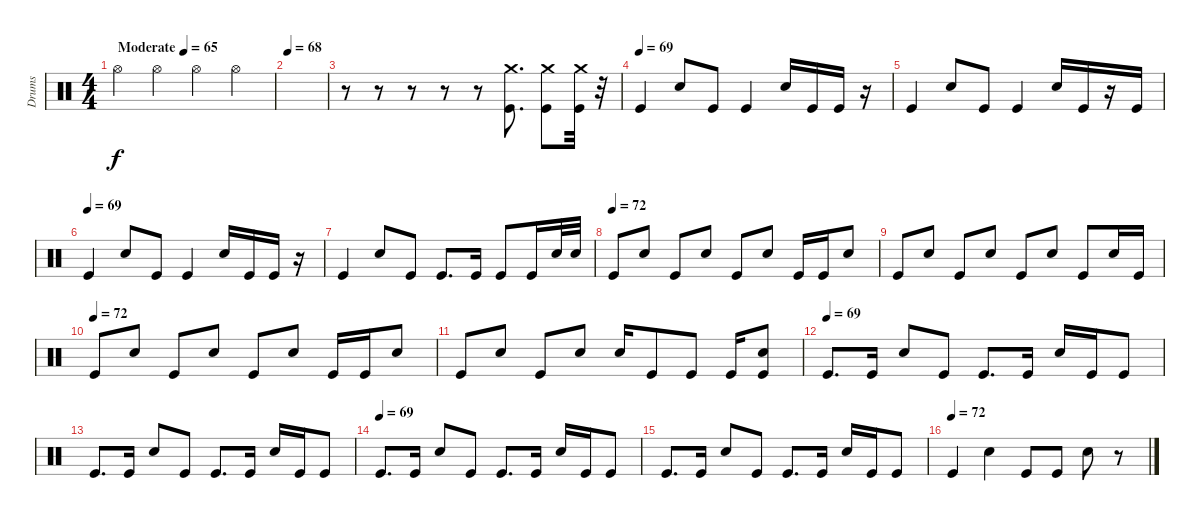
\track ("Drums" "Drums") {instrument percussion}
\staff {score}
\articulation defaults
\ts (4 4)
\tempo (65 "Moderate")
\tempo 136
\tempo (65 "Moderate")
\clef neutral
\ks c "Hi-Hat (open)".4{dy f} "Hi-Hat (open)".4 "Hi-Hat (open)".4 "Hi-Hat (open)".4
|
\tempo 68
|
r.8 r.8 r.8 r.8 r.8 ("Crash medium (hit)" "Kick (hit)").8{d} ("Crash medium (hit)" "Kick (hit)").8 ("Crash medium (hit)" "Kick (hit)").32 r.32 |
\tempo (69)
"Kick (hit)".4 "Snare (hit) 2".8 "Kick (hit)".8 "Kick (hit)".4 "Snare (hit) 2".16 "Kick (hit)".16 "Kick (hit)".16 r.16 |
"Kick (hit)".4 "Snare (hit) 2".8 "Kick (hit)".8 "Kick (hit)".4 "Snare (hit) 2".16 "Kick (hit)".16 r.16 "Kick (hit)".16 |
\tempo (69)
"Kick (hit)".4 "Snare (hit) 2".8 "Kick (hit)".8 "Kick (hit)".4 "Snare (hit) 2".16 "Kick (hit)".16 "Kick (hit)".16 r.16 |
"Kick (hit)".4 "Snare (hit) 2".8 "Kick (hit)".8 "Kick (hit)".8{d} "Kick (hit)".16 "Kick (hit)".8 "Kick (hit)".16 "Snare (hit) 2".32 "Snare (hit) 2".32 |
\tempo (72)
"Kick (hit)".8 "Snare (hit) 2".8 "Kick (hit)".8 "Snare (hit) 2".8 "Kick (hit)".8 "Snare (hit) 2".8 "Kick (hit)".16 "Kick (hit)".16 "Snare (hit) 2".8 |
"Kick (hit)".8 "Snare (hit) 2".8 "Kick (hit)".8 "Snare (hit) 2".8 "Kick (hit)".8 "Snare (hit) 2".8 "Kick (hit)".8 "Snare (hit) 2".16 "Kick (hit)".16 |
\tempo (72)
"Kick (hit)".8 "Snare (hit) 2".8 "Kick (hit)".8 "Snare (hit) 2".8 "Kick (hit)".8 "Snare (hit) 2".8 "Kick (hit)".16 "Kick (hit)".16 "Snare (hit) 2".8 |
"Kick (hit)".8 "Snare (hit) 2".8 "Kick (hit)".8 "Snare (hit) 2".8 "Snare (hit) 2".16 "Kick (hit)".8 "Kick (hit)".8 "Kick (hit)".16 ("Snare (hit) 2" "Kick (hit)").8 |
\tempo (69)
"Kick (hit)".8{d} "Kick (hit)".16 "Snare (hit) 2".8 "Kick (hit)".8 "Kick (hit)".8{d} "Kick (hit)".16 "Snare (hit) 2".16 "Kick (hit)".16 "Kick (hit)".8 |
"Kick (hit)".8{d} "Kick (hit)".16 "Snare (hit) 2".8 "Kick (hit)".8 "Kick (hit)".8{d} "Kick (hit)".16 "Snare (hit) 2".16 "Kick (hit)".16 "Kick (hit)".8 |
\tempo (69)
"Kick (hit)".8{d} "Kick (hit)".16 "Snare (hit) 2".8 "Kick (hit)".8 "Kick (hit)".8{d} "Kick (hit)".16 "Snare (hit) 2".16 "Kick (hit)".16 "Kick (hit)".8 |
"Kick (hit)".8{d} "Kick (hit)".16 "Snare (hit) 2".8 "Kick (hit)".8 "Kick (hit)".8{d} "Kick (hit)".16 "Snare (hit) 2".16 "Kick (hit)".16 "Kick (hit)".8 |
\tempo (72)
"Kick (hit)".4 "Snare (hit) 2".4 "Kick (hit)".8 "Kick (hit)".8 "Snare (hit) 2".8 r.8
